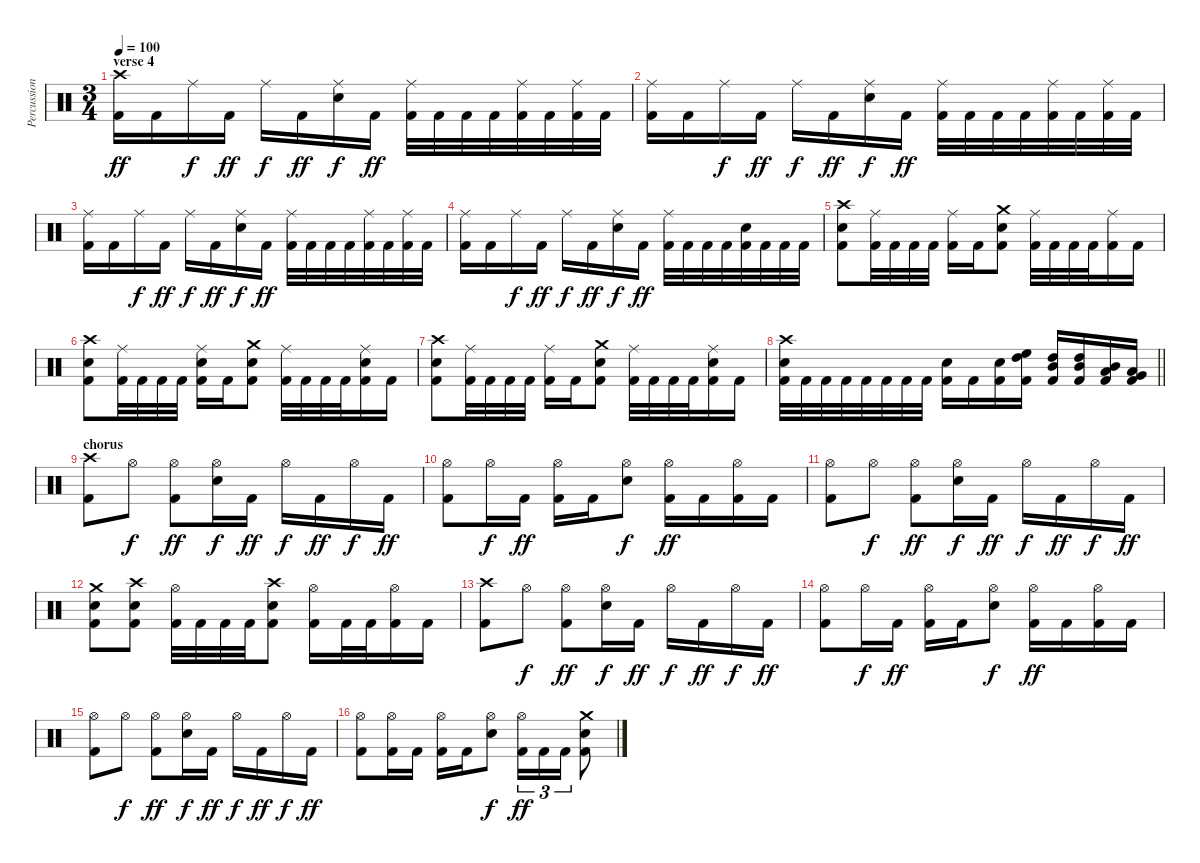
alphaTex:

\track ("Percussion" "Percussion") {instrument percussion}
\staff {score}
\articulation defaults
\ts (3 4)
\section ("" "verse 4")
\tempo 100
\clef neutral
\ks c
("Crash high (hit)" "Kick (hit) 2").16{dy ff} "Kick (hit) 2".16 "Ride (middle)".16{dy f} "Kick (hit) 2".16{dy ff} "Ride (middle)".16{dy f} "Kick (hit) 2".16{dy ff} ("Ride (middle)" "Snare (hit) 2").16{dy f} "Kick (hit) 2".16{dy ff} ("Ride (middle)" "Kick (hit) 2").32 "Kick (hit) 2".32 "Kick (hit) 2".32 "Kick (hit) 2".32 ("Ride (middle)" "Kick (hit) 2").32 "Kick (hit) 2".32 ("Ride (middle)" "Kick (hit) 2").32 "Kick (hit) 2".32 |
("Ride (middle)" "Kick (hit) 2").16 "Kick (hit) 2".16 "Ride (middle)".16{dy f} "Kick (hit) 2".16{dy ff} "Ride (middle)".16{dy f} "Kick (hit) 2".16{dy ff} ("Ride (middle)" "Snare (hit) 2").16{dy f} "Kick (hit) 2".16{dy ff} ("Ride (middle)" "Kick (hit) 2").32 "Kick (hit) 2".32 "Kick (hit) 2".32 "Kick (hit) 2".32 ("Ride (middle)" "Kick (hit) 2").32 "Kick (hit) 2".32 ("Ride (middle)" "Kick (hit) 2").32 "Kick (hit) 2".32 |
("Ride (middle)" "Kick (hit) 2").16 "Kick (hit) 2".16 "Ride (middle)".16{dy f} "Kick (hit) 2".16{dy ff} "Ride (middle)".16{dy f} "Kick (hit) 2".16{dy ff} ("Ride (middle)" "Snare (hit) 2").16{dy f} "Kick (hit) 2".16{dy ff} ("Ride (middle)" "Kick (hit) 2").32 "Kick (hit) 2".32 "Kick (hit) 2".32 "Kick (hit) 2".32 ("Ride (middle)" "Kick (hit) 2").32 "Kick (hit) 2".32 ("Ride (middle)" "Kick (hit) 2").32 "Kick (hit) 2".32 |
("Ride (middle)" "Kick (hit) 2").16 "Kick (hit) 2".16 "Ride (middle)".16{dy f} "Kick (hit) 2".16{dy ff} "Ride (middle)".16{dy f} "Kick (hit) 2".16{dy ff} ("Ride (middle)" "Snare (hit) 2").16{dy f} "Kick (hit) 2".16{dy ff} ("Ride (middle)" "Kick (hit) 2").32 "Kick (hit) 2".32 "Kick (hit) 2".32 "Kick (hit) 2".32 ("Snare (hit) 2" "Kick (hit) 2").32 "Kick (hit) 2".32 "Kick (hit) 2".32 "Kick (hit) 2".32 |
("Crash high (hit)" "Snare (hit) 2" "Kick (hit) 2").8 ("Ride (middle)" "Kick (hit) 2").32 "Kick (hit) 2".32 "Kick (hit) 2".32 "Kick (hit) 2".32 ("Ride (middle)" "Kick (hit) 2").16 "Kick (hit) 2".16 ("Crash medium (hit)" "Snare (hit) 2" "Kick (hit) 2").8 ("Ride (middle)" "Kick (hit) 2").32 "Kick (hit) 2".32 "Kick (hit) 2".32 "Kick (hit) 2".32 ("Ride (middle)" "Kick (hit) 2").16 "Kick (hit) 2".16 |
("Crash high (hit)" "Snare (hit) 2" "Kick (hit) 2").8 ("Ride (middle)" "Kick (hit) 2").32 "Kick (hit) 2".32 "Kick (hit) 2".32 "Kick (hit) 2".32 ("Ride (middle)" "Snare (hit) 2" "Kick (hit) 2").16 "Kick (hit) 2".16 ("Crash medium (hit)" "Snare (hit) 2" "Kick (hit) 2").8 ("Ride (middle)" "Kick (hit) 2").32 "Kick (hit) 2".32 "Kick (hit) 2".32 "Kick (hit) 2".32 ("Ride (middle)" "Snare (hit) 2" "Kick (hit) 2").16 "Kick (hit) 2".16 |
("Crash high (hit)" "Snare (hit) 2" "Kick (hit) 2").8 ("Ride (middle)" "Kick (hit) 2").32 "Kick (hit) 2".32 "Kick (hit) 2".32 "Kick (hit) 2".32 ("Ride (middle)" "Kick (hit) 2").16 "Kick (hit) 2".16 ("Crash medium (hit)" "Snare (hit) 2" "Kick (hit) 2").8 ("Ride (middle)" "Kick (hit) 2").32 "Kick (hit) 2".32 "Kick (hit) 2".32 "Kick (hit) 2".32 ("Ride (middle)" "Snare (hit) 2" "Kick (hit) 2").16 "Kick (hit) 2".16 |
\barLineRight lightlight
("Crash high (hit)" "Snare (hit) 2" "Kick (hit) 2").32 "Kick (hit) 2".32 "Kick (hit) 2".32 "Kick (hit) 2".32 "Kick (hit) 2".32 "Kick (hit) 2".32 "Kick (hit) 2".32 "Kick (hit) 2".32 ("Snare (hit) 2" "Kick (hit) 2").16 "Kick (hit) 2".16 ("Snare (hit) 2" "Kick (hit) 2").16 ("High Tom (hit)" "High Floor Tom (hit)" "Kick (hit) 2").16 ("Mid Tom (hit)" "High Tom (hit)" "Kick (hit) 2").16 ("Mid Tom (hit)" "High Tom (hit)" "Kick (hit) 2").16 ("Low Tom (hit)" "Mid Tom (hit)" "Kick (hit) 2").16 ("Very Low Tom (hit)" "Low Tom (hit)" "Kick (hit) 2").16 |
\section ("" "chorus")
("Crash high (hit)" "Kick (hit) 2").8 "Hi-Hat (open)".8{dy f} ("Hi-Hat (open)" "Kick (hit) 2").8{dy ff} ("Hi-Hat (open)" "Snare (hit) 2").16{dy f} "Kick (hit) 2".16{dy ff} "Hi-Hat (open)".16{dy f} "Kick (hit) 2".16{dy ff} "Hi-Hat (open)".16{dy f} "Kick (hit) 2".16{dy ff} |
("Hi-Hat (open)" "Kick (hit) 2").8 "Hi-Hat (open)".16{dy f} "Kick (hit) 2".16{dy ff} ("Hi-Hat (open)" "Kick (hit) 2").16 "Kick (hit) 2".16 ("Hi-Hat (open)" "Snare (hit) 2").8{dy f} ("Hi-Hat (open)" "Kick (hit) 2").16{dy ff} "Kick (hit) 2".16 ("Hi-Hat (open)" "Kick (hit) 2").16 "Kick (hit) 2".16 |
("Hi-Hat (open)" "Kick (hit) 2").8 "Hi-Hat (open)".8{dy f} ("Hi-Hat (open)" "Kick (hit) 2").8{dy ff} ("Hi-Hat (open)" "Snare (hit) 2").16{dy f} "Kick (hit) 2".16{dy ff} "Hi-Hat (open)".16{dy f} "Kick (hit) 2".16{dy ff} "Hi-Hat (open)".16{dy f} "Kick (hit) 2".16{dy ff} |
("Crash medium (hit)" "Snare (hit) 2" "Kick (hit) 2").8 ("Crash high (hit)" "Snare (hit) 2" "Kick (hit) 2").8 ("Hi-Hat (open)" "Kick (hit) 2").32 "Kick (hit) 2".32 "Kick (hit) 2".32 "Kick (hit) 2".32 ("Crash high (hit)" "Snare (hit) 2" "Kick (hit) 2").8 ("Hi-Hat (open)" "Kick (hit) 2").16 "Kick (hit) 2".32 "Kick (hit) 2".32 ("Hi-Hat (open)" "Kick (hit) 2").16 "Kick (hit) 2".16 |
("Crash high (hit)" "Kick (hit) 2").8 "Hi-Hat (open)".8{dy f} ("Hi-Hat (open)" "Kick (hit) 2").8{dy ff} ("Hi-Hat (open)" "Snare (hit) 2").16{dy f} "Kick (hit) 2".16{dy ff} "Hi-Hat (open)".16{dy f} "Kick (hit) 2".16{dy ff} "Hi-Hat (open)".16{dy f} "Kick (hit) 2".16{dy ff} |
("Hi-Hat (open)" "Kick (hit) 2").8 "Hi-Hat (open)".16{dy f} "Kick (hit) 2".16{dy ff} ("Hi-Hat (open)" "Kick (hit) 2").16 "Kick (hit) 2".16 ("Hi-Hat (open)" "Snare (hit) 2").8{dy f} ("Hi-Hat (open)" "Kick (hit) 2").16{dy ff} "Kick (hit) 2".16 ("Hi-Hat (open)" "Kick (hit) 2").16 "Kick (hit) 2".16 |
("Hi-Hat (open)" "Kick (hit) 2").8 "Hi-Hat (open)".8{dy f} ("Hi-Hat (open)" "Kick (hit) 2").8{dy ff} ("Hi-Hat (open)" "Snare (hit) 2").16{dy f} "Kick (hit) 2".16{dy ff} "Hi-Hat (open)".16{dy f} "Kick (hit) 2".16{dy ff} "Hi-Hat (open)".16{dy f} "Kick (hit) 2".16{dy ff} |
("Hi-Hat (open)" "Kick (hit) 2").8 ("Hi-Hat (open)" "Kick (hit) 2").16 "Kick (hit) 2".16 ("Hi-Hat (open)" "Kick (hit) 2").16 "Kick (hit) 2".16 ("Hi-Hat (open)" "Snare (hit) 2").8{dy f} ("Hi-Hat (open)" "Kick (hit) 2").16{tu (3 2) dy ff} "Kick (hit) 2".16{tu (3 2)} "Kick (hit) 2".16{tu (3 2)} ("Crash medium (hit)" "Snare (hit) 2" "Kick (hit) 2").8
